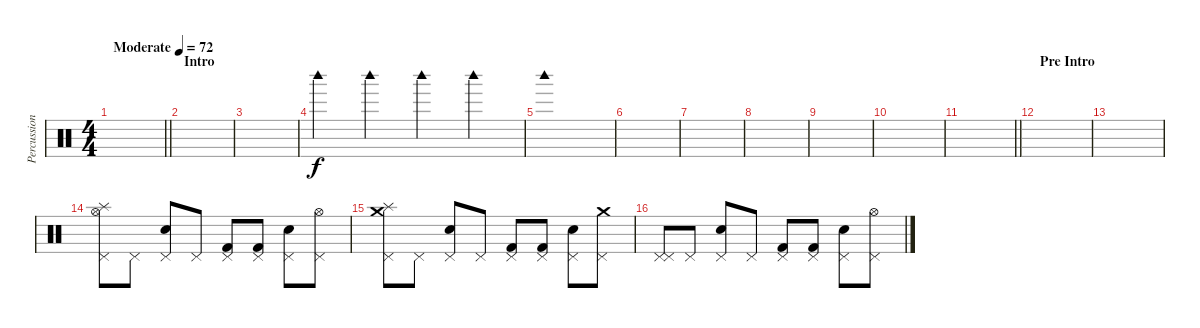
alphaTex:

\track ("Percussion" "Percussion") {instrument percussion}
\staff {score}
\articulation defaults
\ts (4 4)
\tempo (72 "Moderate")
\clef neutral
\barLineRight lightlight
\ks c
|
\section ("" "Intro")
|
|
"Woodblock high (hit)".4 "Woodblock high (hit)".4 "Woodblock high (hit)".4 "Woodblock high (hit)".4 |
"Woodblock high (hit)".1 |
|
|
|
|
|
\barLineRight lightlight
|
\section ("" "Pre Intro")
|
|
("Pedal Hi-Hat (hit)" "Splash (hit)" "Hi-Hat (open)").8 "Pedal Hi-Hat (hit)".8 ("Pedal Hi-Hat (hit)" "Snare (hit) 2").8 "Pedal Hi-Hat (hit)".8 ("Pedal Hi-Hat (hit)" "Kick (hit) 2").8 ("Pedal Hi-Hat (hit)" "Kick (hit) 2").8 ("Pedal Hi-Hat (hit)" "Snare (hit) 2").8 ("Pedal Hi-Hat (hit)" "Hi-Hat (open)").8 |
("Pedal Hi-Hat (hit)" "Splash (hit)" "Crash medium (hit)").8 "Pedal Hi-Hat (hit)".8 ("Pedal Hi-Hat (hit)" "Snare (hit) 2").8 "Pedal Hi-Hat (hit)".8 ("Pedal Hi-Hat (hit)" "Kick (hit) 2").8 ("Pedal Hi-Hat (hit)" "Kick (hit) 2").8 ("Pedal Hi-Hat (hit)" "Snare (hit) 2").8 ("Pedal Hi-Hat (hit)" "Crash medium (hit)").8 |
("Pedal Hi-Hat (hit)" "Pedal Hi-Hat (hit)").8 "Pedal Hi-Hat (hit)".8 ("Pedal Hi-Hat (hit)" "Snare (hit) 2").8 "Pedal Hi-Hat (hit)".8 ("Pedal Hi-Hat (hit)" "Kick (hit) 2").8 ("Pedal Hi-Hat (hit)" "Kick (hit) 2").8 ("Pedal Hi-Hat (hit)" "Snare (hit) 2").8 ("Pedal Hi-Hat (hit)" "Hi-Hat (open)").8
